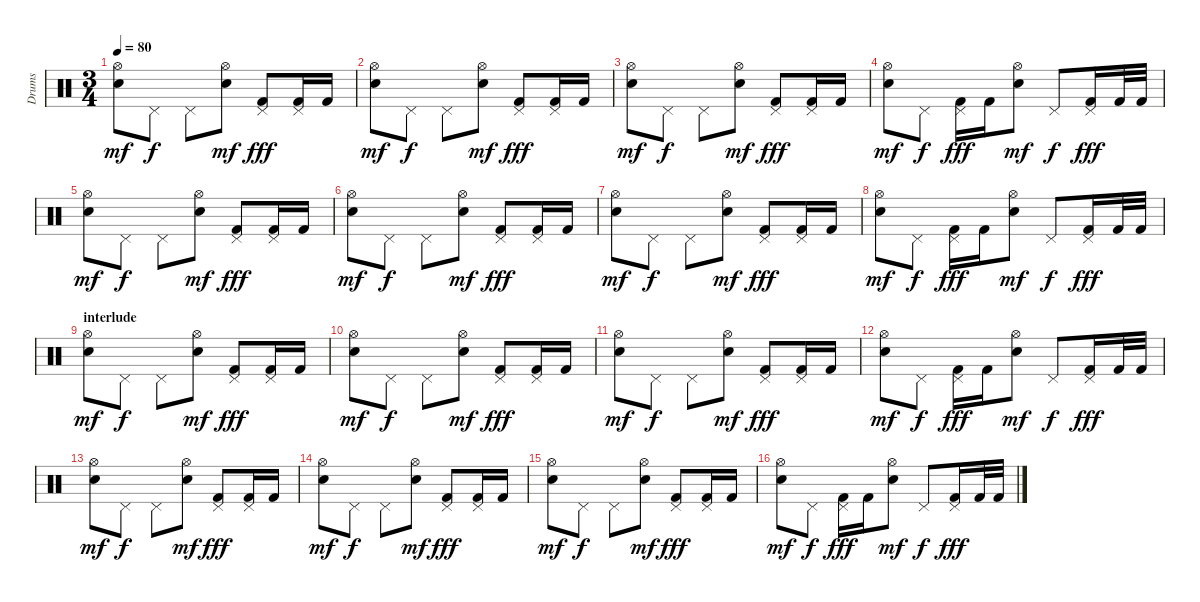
\track ("Drums" "Drums") {instrument percussion}
\staff {score}
\articulation defaults
\ts (3 4)
\tempo 80
\clef neutral
\ks c
("Hi-Hat (open)" "Snare (hit) 2").8{dy mf} "Pedal Hi-Hat (hit)".8{dy f} "Pedal Hi-Hat (hit)".8 ("Hi-Hat (open)" "Snare (hit) 2").8{dy mf} ("Pedal Hi-Hat (hit)" "Kick (hit) 2").8{dy fff} ("Pedal Hi-Hat (hit)" "Kick (hit) 2").16 "Kick (hit) 2".16 |
("Hi-Hat (open)" "Snare (hit) 2").8{dy mf} "Pedal Hi-Hat (hit)".8{dy f} "Pedal Hi-Hat (hit)".8 ("Hi-Hat (open)" "Snare (hit) 2").8{dy mf} ("Pedal Hi-Hat (hit)" "Kick (hit) 2").8{dy fff} ("Pedal Hi-Hat (hit)" "Kick (hit) 2").16 "Kick (hit) 2".16 |
("Hi-Hat (open)" "Snare (hit) 2").8{dy mf} "Pedal Hi-Hat (hit)".8{dy f} "Pedal Hi-Hat (hit)".8 ("Hi-Hat (open)" "Snare (hit) 2").8{dy mf} ("Pedal Hi-Hat (hit)" "Kick (hit) 2").8{dy fff} ("Pedal Hi-Hat (hit)" "Kick (hit) 2").16 "Kick (hit) 2".16 |
("Hi-Hat (open)" "Snare (hit) 2").8{dy mf} "Pedal Hi-Hat (hit)".8{dy f} ("Pedal Hi-Hat (hit)" "Kick (hit) 2").16{dy fff} "Kick (hit) 2".16 ("Hi-Hat (open)" "Snare (hit) 2").8{dy mf} "Pedal Hi-Hat (hit)".8{dy f} ("Pedal Hi-Hat (hit)" "Kick (hit) 2").16{dy fff} "Kick (hit) 2".32 "Kick (hit) 2".32 |
("Hi-Hat (open)" "Snare (hit) 2").8{dy mf} "Pedal Hi-Hat (hit)".8{dy f} "Pedal Hi-Hat (hit)".8 ("Hi-Hat (open)" "Snare (hit) 2").8{dy mf} ("Pedal Hi-Hat (hit)" "Kick (hit) 2").8{dy fff} ("Pedal Hi-Hat (hit)" "Kick (hit) 2").16 "Kick (hit) 2".16 |
("Hi-Hat (open)" "Snare (hit) 2").8{dy mf} "Pedal Hi-Hat (hit)".8{dy f} "Pedal Hi-Hat (hit)".8 ("Hi-Hat (open)" "Snare (hit) 2").8{dy mf} ("Pedal Hi-Hat (hit)" "Kick (hit) 2").8{dy fff} ("Pedal Hi-Hat (hit)" "Kick (hit) 2").16 "Kick (hit) 2".16 |
("Hi-Hat (open)" "Snare (hit) 2").8{dy mf} "Pedal Hi-Hat (hit)".8{dy f} "Pedal Hi-Hat (hit)".8 ("Hi-Hat (open)" "Snare (hit) 2").8{dy mf} ("Pedal Hi-Hat (hit)" "Kick (hit) 2").8{dy fff} ("Pedal Hi-Hat (hit)" "Kick (hit) 2").16 "Kick (hit) 2".16 |
("Hi-Hat (open)" "Snare (hit) 2").8{dy mf} "Pedal Hi-Hat (hit)".8{dy f} ("Pedal Hi-Hat (hit)" "Kick (hit) 2").16{dy fff} "Kick (hit) 2".16 ("Hi-Hat (open)" "Snare (hit) 2").8{dy mf} "Pedal Hi-Hat (hit)".8{dy f} ("Pedal Hi-Hat (hit)" "Kick (hit) 2").16{dy fff} "Kick (hit) 2".32 "Kick (hit) 2".32 |
\section ("" "interlude")
("Hi-Hat (open)" "Snare (hit) 2").8{dy mf} "Pedal Hi-Hat (hit)".8{dy f} "Pedal Hi-Hat (hit)".8 ("Hi-Hat (open)" "Snare (hit) 2").8{dy mf} ("Pedal Hi-Hat (hit)" "Kick (hit) 2").8{dy fff} ("Pedal Hi-Hat (hit)" "Kick (hit) 2").16 "Kick (hit) 2".16 |
("Hi-Hat (open)" "Snare (hit) 2").8{dy mf} "Pedal Hi-Hat (hit)".8{dy f} "Pedal Hi-Hat (hit)".8 ("Hi-Hat (open)" "Snare (hit) 2").8{dy mf} ("Pedal Hi-Hat (hit)" "Kick (hit) 2").8{dy fff} ("Pedal Hi-Hat (hit)" "Kick (hit) 2").16 "Kick (hit) 2".16 |
("Hi-Hat (open)" "Snare (hit) 2").8{dy mf} "Pedal Hi-Hat (hit)".8{dy f} "Pedal Hi-Hat (hit)".8 ("Hi-Hat (open)" "Snare (hit) 2").8{dy mf} ("Pedal Hi-Hat (hit)" "Kick (hit) 2").8{dy fff} ("Pedal Hi-Hat (hit)" "Kick (hit) 2").16 "Kick (hit) 2".16 |
("Hi-Hat (open)" "Snare (hit) 2").8{dy mf} "Pedal Hi-Hat (hit)".8{dy f} ("Pedal Hi-Hat (hit)" "Kick (hit) 2").16{dy fff} "Kick (hit) 2".16 ("Hi-Hat (open)" "Snare (hit) 2").8{dy mf} "Pedal Hi-Hat (hit)".8{dy f} ("Pedal Hi-Hat (hit)" "Kick (hit) 2").16{dy fff} "Kick (hit) 2".32 "Kick (hit) 2".32 |
("Hi-Hat (open)" "Snare (hit) 2").8{dy mf} "Pedal Hi-Hat (hit)".8{dy f} "Pedal Hi-Hat (hit)".8 ("Hi-Hat (open)" "Snare (hit) 2").8{dy mf} ("Pedal Hi-Hat (hit)" "Kick (hit) 2").8{dy fff} ("Pedal Hi-Hat (hit)" "Kick (hit) 2").16 "Kick (hit) 2".16 |
("Hi-Hat (open)" "Snare (hit) 2").8{dy mf} "Pedal Hi-Hat (hit)".8{dy f} "Pedal Hi-Hat (hit)".8 ("Hi-Hat (open)" "Snare (hit) 2").8{dy mf} ("Pedal Hi-Hat (hit)" "Kick (hit) 2").8{dy fff} ("Pedal Hi-Hat (hit)" "Kick (hit) 2").16 "Kick (hit) 2".16 |
("Hi-Hat (open)" "Snare (hit) 2").8{dy mf} "Pedal Hi-Hat (hit)".8{dy f} "Pedal Hi-Hat (hit)".8 ("Hi-Hat (open)" "Snare (hit) 2").8{dy mf} ("Pedal Hi-Hat (hit)" "Kick (hit) 2").8{dy fff} ("Pedal Hi-Hat (hit)" "Kick (hit) 2").16 "Kick (hit) 2".16 |
("Hi-Hat (open)" "Snare (hit) 2").8{dy mf} "Pedal Hi-Hat (hit)".8{dy f} ("Pedal Hi-Hat (hit)" "Kick (hit) 2").16{dy fff} "Kick (hit) 2".16 ("Hi-Hat (open)" "Snare (hit) 2").8{dy mf} "Pedal Hi-Hat (hit)".8{dy f} ("Pedal Hi-Hat (hit)" "Kick (hit) 2").16{dy fff} "Kick (hit) 2".32 "Kick (hit) 2".32
